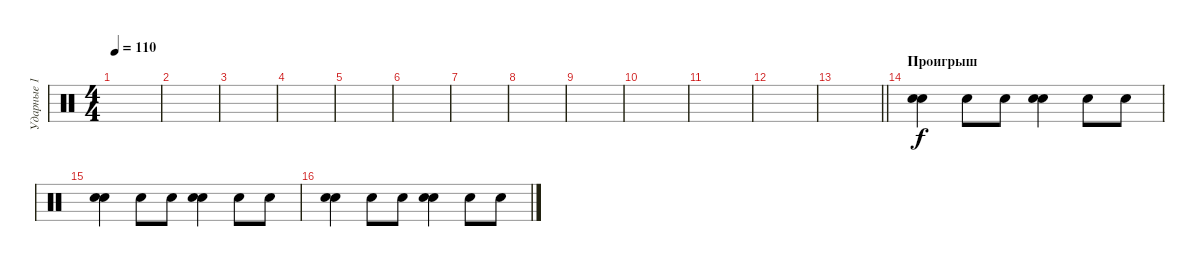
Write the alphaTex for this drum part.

\track ("Ударные 1" "Ударные 1") {instrument percussion}
\staff {score}
\articulation defaults
\ts (4 4)
\tempo 110
\clef neutral
\ks c
|
|
|
|
|
|
|
|
|
|
|
|
\barLineRight lightlight
|
\section ("" "Проигрыш")
("Snare (hit) 2" "Electric Snare (hit)").4 "Electric Snare (hit)".8 "Electric Snare (hit)".8 ("Snare (hit) 2" "Electric Snare (hit)").4 "Electric Snare (hit)".8 "Electric Snare (hit)".8 |
("Snare (hit) 2" "Electric Snare (hit)").4 "Electric Snare (hit)".8 "Electric Snare (hit)".8 ("Snare (hit) 2" "Electric Snare (hit)").4 "Electric Snare (hit)".8 "Electric Snare (hit)".8 |
("Snare (hit) 2" "Electric Snare (hit)").4 "Electric Snare (hit)".8 "Electric Snare (hit)".8 ("Snare (hit) 2" "Electric Snare (hit)").4 "Electric Snare (hit)".8 "Electric Snare (hit)".8
